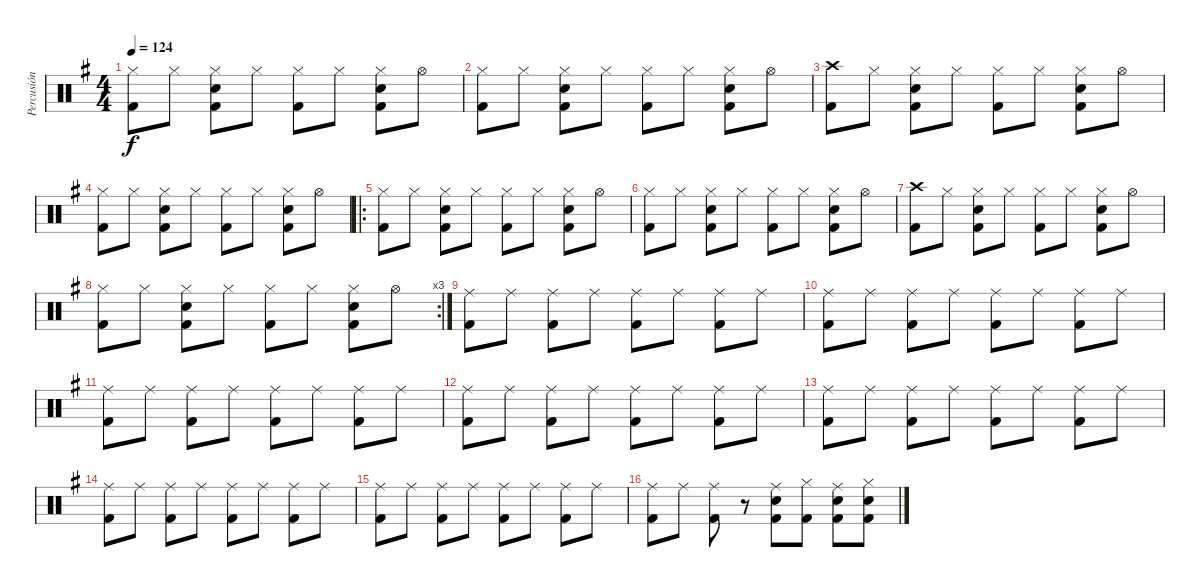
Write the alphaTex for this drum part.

\track ("Percusión" "Percusión") {instrument percussion}
\staff {score}
\articulation defaults
\ts (4 4)
\tempo 124
\clef neutral
\ks g
("Hi-Hat (closed)" "Kick (hit) 2").8{dy f} "Hi-Hat (closed)".8 ("Hi-Hat (closed)" "Electric Snare (hit)" "Kick (hit) 2").8 "Hi-Hat (closed)".8 ("Hi-Hat (closed)" "Kick (hit) 2").8 "Hi-Hat (closed)".8 ("Hi-Hat (closed)" "Electric Snare (hit)" "Kick (hit) 2").8 "Hi-Hat (open)".8 |
("Hi-Hat (closed)" "Kick (hit) 2").8 "Hi-Hat (closed)".8 ("Hi-Hat (closed)" "Electric Snare (hit)" "Kick (hit) 2").8 "Hi-Hat (closed)".8 ("Hi-Hat (closed)" "Kick (hit) 2").8 "Hi-Hat (closed)".8 ("Hi-Hat (closed)" "Electric Snare (hit)" "Kick (hit) 2").8 "Hi-Hat (open)".8 |
("Crash high (hit)" "Kick (hit) 2").8 "Hi-Hat (closed)".8 ("Hi-Hat (closed)" "Electric Snare (hit)" "Kick (hit) 2").8 "Hi-Hat (closed)".8 ("Hi-Hat (closed)" "Kick (hit) 2").8 "Hi-Hat (closed)".8 ("Hi-Hat (closed)" "Electric Snare (hit)" "Kick (hit) 2").8 "Hi-Hat (open)".8 |
("Hi-Hat (closed)" "Kick (hit) 2").8 "Hi-Hat (closed)".8 ("Hi-Hat (closed)" "Electric Snare (hit)" "Kick (hit) 2").8 "Hi-Hat (closed)".8 ("Hi-Hat (closed)" "Kick (hit) 2").8 "Hi-Hat (closed)".8 ("Hi-Hat (closed)" "Electric Snare (hit)" "Kick (hit) 2").8 "Hi-Hat (open)".8 |
\ro
("Hi-Hat (closed)" "Kick (hit) 2").8 "Hi-Hat (closed)".8 ("Hi-Hat (closed)" "Electric Snare (hit)" "Kick (hit) 2").8 "Hi-Hat (closed)".8 ("Hi-Hat (closed)" "Kick (hit) 2").8 "Hi-Hat (closed)".8 ("Hi-Hat (closed)" "Electric Snare (hit)" "Kick (hit) 2").8 "Hi-Hat (open)".8 |
("Hi-Hat (closed)" "Kick (hit) 2").8 "Hi-Hat (closed)".8 ("Hi-Hat (closed)" "Electric Snare (hit)" "Kick (hit) 2").8 "Hi-Hat (closed)".8 ("Hi-Hat (closed)" "Kick (hit) 2").8 "Hi-Hat (closed)".8 ("Hi-Hat (closed)" "Electric Snare (hit)" "Kick (hit) 2").8 "Hi-Hat (open)".8 |
("Crash high (hit)" "Kick (hit) 2").8 "Hi-Hat (closed)".8 ("Hi-Hat (closed)" "Electric Snare (hit)" "Kick (hit) 2").8 "Hi-Hat (closed)".8 ("Hi-Hat (closed)" "Kick (hit) 2").8 "Hi-Hat (closed)".8 ("Hi-Hat (closed)" "Electric Snare (hit)" "Kick (hit) 2").8 "Hi-Hat (open)".8 |
\rc 3
("Hi-Hat (closed)" "Kick (hit) 2").8 "Hi-Hat (closed)".8 ("Hi-Hat (closed)" "Electric Snare (hit)" "Kick (hit) 2").8 "Hi-Hat (closed)".8 ("Hi-Hat (closed)" "Kick (hit) 2").8 "Hi-Hat (closed)".8 ("Hi-Hat (closed)" "Electric Snare (hit)" "Kick (hit) 2").8 "Hi-Hat (open)".8 |
("Ride (middle)" "Kick (hit) 2").8 "Ride (middle)".8 ("Ride (middle)" "Kick (hit) 2").8 "Ride (middle)".8 ("Ride (middle)" "Kick (hit) 2").8 "Ride (middle)".8 ("Ride (middle)" "Kick (hit) 2").8 "Ride (middle)".8 |
("Ride (middle)" "Kick (hit) 2").8 "Ride (middle)".8 ("Ride (middle)" "Kick (hit) 2").8 "Ride (middle)".8 ("Ride (middle)" "Kick (hit) 2").8 "Ride (middle)".8 ("Ride (middle)" "Kick (hit) 2").8 "Ride (middle)".8 |
("Ride (middle)" "Kick (hit) 2").8 "Ride (middle)".8 ("Ride (middle)" "Kick (hit) 2").8 "Ride (middle)".8 ("Ride (middle)" "Kick (hit) 2").8 "Ride (middle)".8 ("Ride (middle)" "Kick (hit) 2").8 "Ride (middle)".8 |
("Ride (middle)" "Kick (hit) 2").8 "Ride (middle)".8 ("Ride (middle)" "Kick (hit) 2").8 "Ride (middle)".8 ("Ride (middle)" "Kick (hit) 2").8 "Ride (middle)".8 ("Ride (middle)" "Kick (hit) 2").8 "Ride (middle)".8 |
("Ride (middle)" "Kick (hit) 2").8 "Ride (middle)".8 ("Ride (middle)" "Kick (hit) 2").8 "Ride (middle)".8 ("Ride (middle)" "Kick (hit) 2").8 "Ride (middle)".8 ("Ride (middle)" "Kick (hit) 2").8 "Ride (middle)".8 |
("Ride (middle)" "Kick (hit) 2").8 "Ride (middle)".8 ("Ride (middle)" "Kick (hit) 2").8 "Ride (middle)".8 ("Ride (middle)" "Kick (hit) 2").8 "Ride (middle)".8 ("Ride (middle)" "Kick (hit) 2").8 "Ride (middle)".8 |
("Ride (middle)" "Kick (hit) 2").8 "Ride (middle)".8 ("Ride (middle)" "Kick (hit) 2").8 "Ride (middle)".8 ("Ride (middle)" "Kick (hit) 2").8 "Ride (middle)".8 ("Ride (middle)" "Kick (hit) 2").8 "Ride (middle)".8 |
("Ride (middle)" "Kick (hit) 2").8 "Ride (middle)".8 ("Ride (middle)" "Kick (hit) 2").8 r.8 ("Ride (middle)" "Electric Snare (hit)" "Kick (hit) 2").8 ("Hi-Hat (closed)" "Kick (hit) 2").8 ("Ride (middle)" "Electric Snare (hit)" "Kick (hit) 2").8 ("Hi-Hat (closed)" "Electric Snare (hit)" "Kick (hit) 2").8
